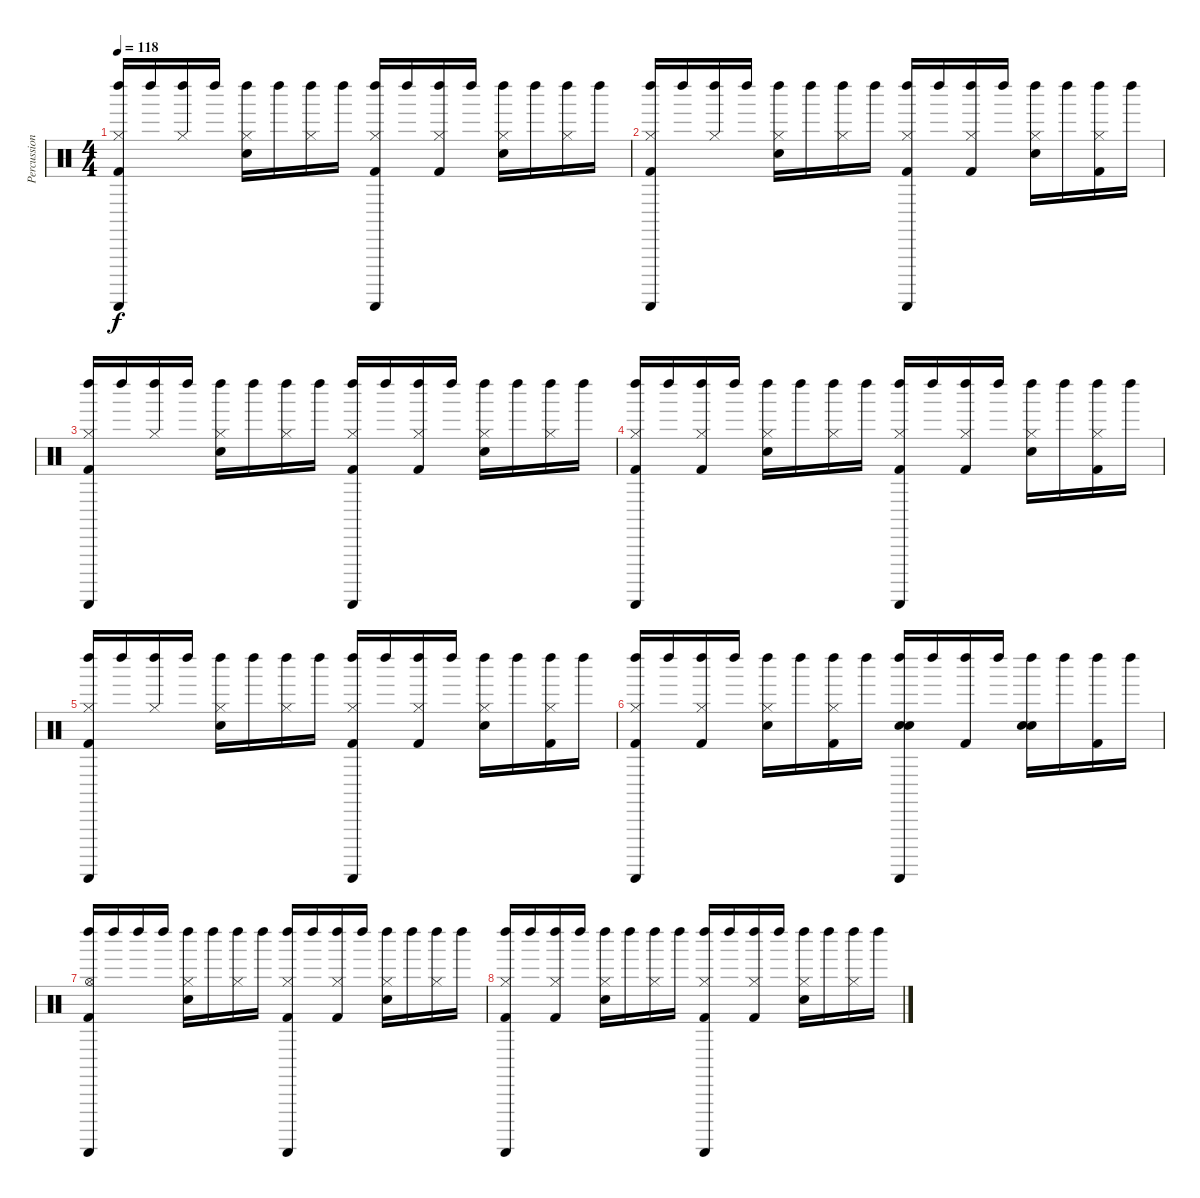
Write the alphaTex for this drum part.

\track ("Percussions" "Percussion") {instrument percussion}
\staff {score}
\articulation defaults
\ts (4 4)
\tempo 118
\clef neutral
\ks c
("Guiro (scrap-return)" "Left Maraca (hit)" "Hi-Hat (closed)" "Kick (hit) 2").16{dy f} "Left Maraca (hit)".16 ("Left Maraca (hit)" "Hi-Hat (closed)").16 "Left Maraca (hit)".16 ("Left Maraca (hit)" "Hi-Hat (closed)" "Snare (hit) 2").16 "Left Maraca (hit)".16 ("Left Maraca (hit)" "Hi-Hat (closed)").16 "Left Maraca (hit)".16 ("Guiro (scrap-return)" "Left Maraca (hit)" "Hi-Hat (closed)" "Kick (hit) 2").16 "Left Maraca (hit)".16 ("Left Maraca (hit)" "Hi-Hat (closed)" "Kick (hit) 2").16 "Left Maraca (hit)".16 ("Left Maraca (hit)" "Hi-Hat (closed)" "Snare (hit) 2").16 "Left Maraca (hit)".16 ("Left Maraca (hit)" "Hi-Hat (closed)").16 "Left Maraca (hit)".16 |
("Guiro (scrap-return)" "Left Maraca (hit)" "Hi-Hat (closed)" "Kick (hit) 2").16 "Left Maraca (hit)".16 ("Left Maraca (hit)" "Hi-Hat (closed)").16 "Left Maraca (hit)".16 ("Left Maraca (hit)" "Hi-Hat (closed)" "Snare (hit) 2").16 "Left Maraca (hit)".16 ("Left Maraca (hit)" "Hi-Hat (closed)").16 "Left Maraca (hit)".16 ("Guiro (scrap-return)" "Left Maraca (hit)" "Hi-Hat (closed)" "Kick (hit) 2").16 "Left Maraca (hit)".16 ("Left Maraca (hit)" "Hi-Hat (closed)" "Kick (hit) 2").16 "Left Maraca (hit)".16 ("Left Maraca (hit)" "Hi-Hat (closed)" "Snare (hit) 2").16 "Left Maraca (hit)".16 ("Left Maraca (hit)" "Hi-Hat (closed)" "Kick (hit) 2").16 "Left Maraca (hit)".16 |
("Guiro (scrap-return)" "Left Maraca (hit)" "Hi-Hat (closed)" "Kick (hit) 2").16 "Left Maraca (hit)".16 ("Left Maraca (hit)" "Hi-Hat (closed)").16 "Left Maraca (hit)".16 ("Left Maraca (hit)" "Hi-Hat (closed)" "Snare (hit) 2").16 "Left Maraca (hit)".16 ("Left Maraca (hit)" "Hi-Hat (closed)").16 "Left Maraca (hit)".16 ("Guiro (scrap-return)" "Left Maraca (hit)" "Hi-Hat (closed)" "Kick (hit) 2").16 "Left Maraca (hit)".16 ("Left Maraca (hit)" "Hi-Hat (closed)" "Kick (hit) 2").16 "Left Maraca (hit)".16 ("Left Maraca (hit)" "Hi-Hat (closed)" "Snare (hit) 2").16 "Left Maraca (hit)".16 ("Left Maraca (hit)" "Hi-Hat (closed)").16 "Left Maraca (hit)".16 |
("Guiro (scrap-return)" "Left Maraca (hit)" "Hi-Hat (closed)" "Kick (hit) 2").16 "Left Maraca (hit)".16 ("Left Maraca (hit)" "Hi-Hat (closed)" "Kick (hit) 2").16 "Left Maraca (hit)".16 ("Left Maraca (hit)" "Hi-Hat (closed)" "Snare (hit) 2").16 "Left Maraca (hit)".16 ("Left Maraca (hit)" "Hi-Hat (closed)").16 "Left Maraca (hit)".16 ("Guiro (scrap-return)" "Left Maraca (hit)" "Hi-Hat (closed)" "Kick (hit) 2").16 "Left Maraca (hit)".16 ("Left Maraca (hit)" "Hi-Hat (closed)" "Kick (hit) 2").16 "Left Maraca (hit)".16 ("Left Maraca (hit)" "Hi-Hat (closed)" "Snare (hit) 2").16 "Left Maraca (hit)".16 ("Left Maraca (hit)" "Hi-Hat (closed)" "Kick (hit) 2").16 "Left Maraca (hit)".16 |
("Guiro (scrap-return)" "Left Maraca (hit)" "Hi-Hat (closed)" "Kick (hit) 2").16 "Left Maraca (hit)".16 ("Left Maraca (hit)" "Hi-Hat (closed)").16 "Left Maraca (hit)".16 ("Left Maraca (hit)" "Hi-Hat (closed)" "Snare (hit) 2").16 "Left Maraca (hit)".16 ("Left Maraca (hit)" "Hi-Hat (closed)").16 "Left Maraca (hit)".16 ("Guiro (scrap-return)" "Left Maraca (hit)" "Hi-Hat (closed)" "Kick (hit) 2").16 "Left Maraca (hit)".16 ("Left Maraca (hit)" "Hi-Hat (closed)" "Kick (hit) 2").16 "Left Maraca (hit)".16 ("Left Maraca (hit)" "Hi-Hat (closed)" "Snare (hit) 2").16 "Left Maraca (hit)".16 ("Left Maraca (hit)" "Hi-Hat (closed)" "Kick (hit) 2").16 "Left Maraca (hit)".16 |
("Guiro (scrap-return)" "Left Maraca (hit)" "Hi-Hat (closed)" "Kick (hit) 2").16 "Left Maraca (hit)".16 ("Left Maraca (hit)" "Hi-Hat (closed)" "Kick (hit) 2").16 "Left Maraca (hit)".16 ("Left Maraca (hit)" "Hi-Hat (closed)" "Snare (hit) 2").16 "Left Maraca (hit)".16 ("Left Maraca (hit)" "Hi-Hat (closed)" "Kick (hit) 2").16 "Left Maraca (hit)".16 ("Guiro (scrap-return)" "Left Maraca (hit)" "Snare (hit) 2" "Snare (hit) 2").16 "Left Maraca (hit)".16 ("Left Maraca (hit)" "Kick (hit) 2").16 "Left Maraca (hit)".16 ("Left Maraca (hit)" "Snare (hit) 2" "Snare (hit) 2").16 "Left Maraca (hit)".16 ("Left Maraca (hit)" "Kick (hit) 2").16 "Left Maraca (hit)".16 |
("Guiro (scrap-return)" "Left Maraca (hit)" "Hi-Hat (open)" "Kick (hit) 2").16 "Left Maraca (hit)".16 "Left Maraca (hit)".16 "Left Maraca (hit)".16 ("Left Maraca (hit)" "Hi-Hat (closed)" "Snare (hit) 2").16 "Left Maraca (hit)".16 ("Left Maraca (hit)" "Hi-Hat (closed)").16 "Left Maraca (hit)".16 ("Guiro (scrap-return)" "Left Maraca (hit)" "Hi-Hat (closed)" "Kick (hit) 2").16 "Left Maraca (hit)".16 ("Left Maraca (hit)" "Hi-Hat (closed)" "Kick (hit) 2").16 "Left Maraca (hit)".16 ("Left Maraca (hit)" "Hi-Hat (closed)" "Snare (hit) 2").16 "Left Maraca (hit)".16 ("Left Maraca (hit)" "Hi-Hat (closed)").16 "Left Maraca (hit)".16 |
("Guiro (scrap-return)" "Left Maraca (hit)" "Hi-Hat (closed)" "Kick (hit) 2").16 "Left Maraca (hit)".16 ("Left Maraca (hit)" "Hi-Hat (closed)" "Kick (hit) 2").16 "Left Maraca (hit)".16 ("Left Maraca (hit)" "Hi-Hat (closed)" "Snare (hit) 2").16 "Left Maraca (hit)".16 ("Left Maraca (hit)" "Hi-Hat (closed)").16 "Left Maraca (hit)".16 ("Guiro (scrap-return)" "Left Maraca (hit)" "Hi-Hat (closed)" "Kick (hit) 2").16 "Left Maraca (hit)".16 ("Left Maraca (hit)" "Hi-Hat (closed)" "Kick (hit) 2").16 "Left Maraca (hit)".16 ("Left Maraca (hit)" "Hi-Hat (closed)" "Snare (hit) 2").16 "Left Maraca (hit)".16 ("Left Maraca (hit)" "Hi-Hat (closed)").16 "Left Maraca (hit)".16
